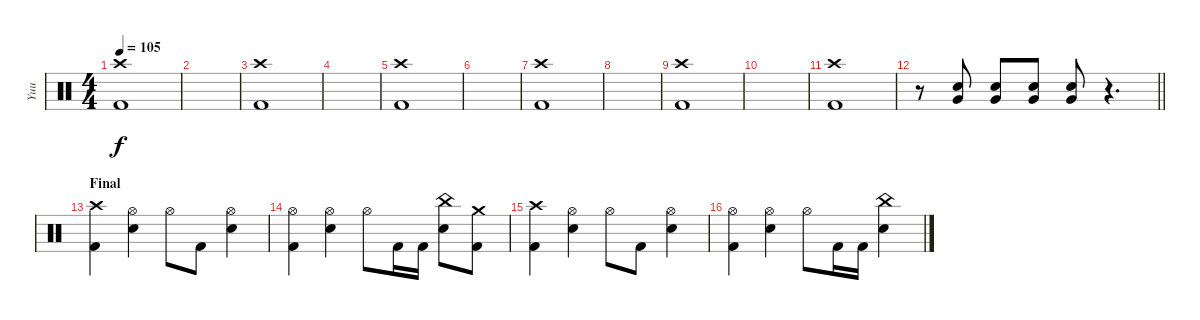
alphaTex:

\track ("Yuu" "Yuu") {instrument percussion}
\staff {score}
\articulation defaults
\ts (4 4)
\tempo 105
\clef neutral
\ks c
("Crash high (hit)" "Kick (hit) 2").1{dy f} |
|
("Crash high (hit)" "Kick (hit) 2").1 |
|
("Crash high (hit)" "Kick (hit) 2").1 |
|
("Crash high (hit)" "Kick (hit) 2").1 |
|
("Crash high (hit)" "Kick (hit) 2").1 |
|
("Crash high (hit)" "Kick (hit) 2").1 |
\barLineRight lightlight
r.8 ("Electric Snare (hit)" "Very Low Tom (hit)").8 ("Electric Snare (hit)" "Very Low Tom (hit)").8 ("Electric Snare (hit)" "Very Low Tom (hit)").8 ("Electric Snare (hit)" "Very Low Tom (hit)").8 r.4{d} |
\section ("" "Final")
("Crash high (hit)" "Kick (hit) 2").4 ("Hi-Hat (open)" "Electric Snare (hit)").4 "Hi-Hat (open)".8 "Kick (hit) 2".8 ("Hi-Hat (open)" "Electric Snare (hit)").4 |
("Hi-Hat (open)" "Kick (hit) 2").4 ("Hi-Hat (open)" "Electric Snare (hit)").4 "Hi-Hat (open)".8 "Kick (hit) 2".16 "Kick (hit) 2".16 ("China (hit)" "Electric Snare (hit)").8 ("Crash medium (hit)" "Kick (hit) 2").8 |
("Crash high (hit)" "Kick (hit) 2").4 ("Hi-Hat (open)" "Electric Snare (hit)").4 "Hi-Hat (open)".8 "Kick (hit) 2".8 ("Hi-Hat (open)" "Electric Snare (hit)").4 |
("Hi-Hat (open)" "Kick (hit) 2").4 ("Hi-Hat (open)" "Electric Snare (hit)").4 "Hi-Hat (open)".8 "Kick (hit) 2".16 "Kick (hit) 2".16 ("China (hit)" "Electric Snare (hit)").4
